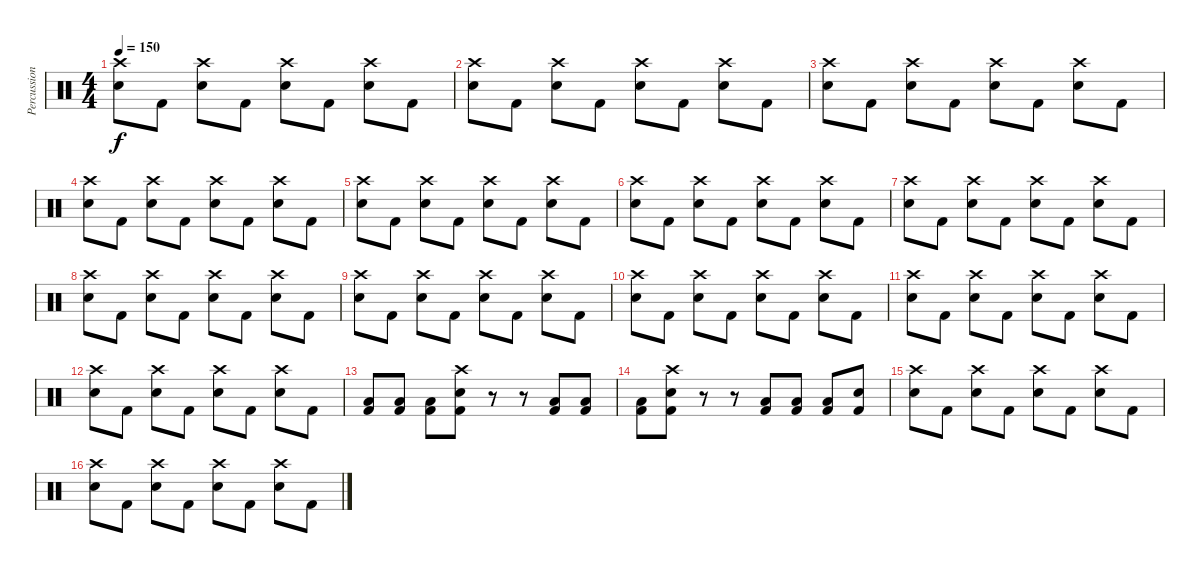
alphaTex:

\track ("Percussion" "Percussion") {instrument percussion}
\staff {score}
\articulation defaults
\ts (4 4)
\tempo 150
\clef neutral
\ks c
("Crash high (hit)" "Snare (hit) 2").8{dy f} "Kick (hit) 2".8 ("Crash high (hit)" "Snare (hit) 2").8 "Kick (hit) 2".8 ("Crash high (hit)" "Snare (hit) 2").8 "Kick (hit) 2".8 ("Crash high (hit)" "Snare (hit) 2").8 "Kick (hit) 2".8 |
("Crash high (hit)" "Snare (hit) 2").8 "Kick (hit) 2".8 ("Crash high (hit)" "Snare (hit) 2").8 "Kick (hit) 2".8 ("Crash high (hit)" "Snare (hit) 2").8 "Kick (hit) 2".8 ("Crash high (hit)" "Snare (hit) 2").8 "Kick (hit) 2".8 |
("Crash high (hit)" "Snare (hit) 2").8 "Kick (hit) 2".8 ("Crash high (hit)" "Snare (hit) 2").8 "Kick (hit) 2".8 ("Crash high (hit)" "Snare (hit) 2").8 "Kick (hit) 2".8 ("Crash high (hit)" "Snare (hit) 2").8 "Kick (hit) 2".8 |
("Crash high (hit)" "Snare (hit) 2").8 "Kick (hit) 2".8 ("Crash high (hit)" "Snare (hit) 2").8 "Kick (hit) 2".8 ("Crash high (hit)" "Snare (hit) 2").8 "Kick (hit) 2".8 ("Crash high (hit)" "Snare (hit) 2").8 "Kick (hit) 2".8 |
("Crash high (hit)" "Snare (hit) 2").8 "Kick (hit) 2".8 ("Crash high (hit)" "Snare (hit) 2").8 "Kick (hit) 2".8 ("Crash high (hit)" "Snare (hit) 2").8 "Kick (hit) 2".8 ("Crash high (hit)" "Snare (hit) 2").8 "Kick (hit) 2".8 |
("Crash high (hit)" "Snare (hit) 2").8 "Kick (hit) 2".8 ("Crash high (hit)" "Snare (hit) 2").8 "Kick (hit) 2".8 ("Crash high (hit)" "Snare (hit) 2").8 "Kick (hit) 2".8 ("Crash high (hit)" "Snare (hit) 2").8 "Kick (hit) 2".8 |
("Crash high (hit)" "Snare (hit) 2").8 "Kick (hit) 2".8 ("Crash high (hit)" "Snare (hit) 2").8 "Kick (hit) 2".8 ("Crash high (hit)" "Snare (hit) 2").8 "Kick (hit) 2".8 ("Crash high (hit)" "Snare (hit) 2").8 "Kick (hit) 2".8 |
("Crash high (hit)" "Snare (hit) 2").8 "Kick (hit) 2".8 ("Crash high (hit)" "Snare (hit) 2").8 "Kick (hit) 2".8 ("Crash high (hit)" "Snare (hit) 2").8 "Kick (hit) 2".8 ("Crash high (hit)" "Snare (hit) 2").8 "Kick (hit) 2".8 |
("Crash high (hit)" "Snare (hit) 2").8 "Kick (hit) 2".8 ("Crash high (hit)" "Snare (hit) 2").8 "Kick (hit) 2".8 ("Crash high (hit)" "Snare (hit) 2").8 "Kick (hit) 2".8 ("Crash high (hit)" "Snare (hit) 2").8 "Kick (hit) 2".8 |
("Crash high (hit)" "Snare (hit) 2").8 "Kick (hit) 2".8 ("Crash high (hit)" "Snare (hit) 2").8 "Kick (hit) 2".8 ("Crash high (hit)" "Snare (hit) 2").8 "Kick (hit) 2".8 ("Crash high (hit)" "Snare (hit) 2").8 "Kick (hit) 2".8 |
("Crash high (hit)" "Snare (hit) 2").8 "Kick (hit) 2".8 ("Crash high (hit)" "Snare (hit) 2").8 "Kick (hit) 2".8 ("Crash high (hit)" "Snare (hit) 2").8 "Kick (hit) 2".8 ("Crash high (hit)" "Snare (hit) 2").8 "Kick (hit) 2".8 |
("Crash high (hit)" "Snare (hit) 2").8 "Kick (hit) 2".8 ("Crash high (hit)" "Snare (hit) 2").8 "Kick (hit) 2".8 ("Crash high (hit)" "Snare (hit) 2").8 "Kick (hit) 2".8 ("Crash high (hit)" "Snare (hit) 2").8 "Kick (hit) 2".8 |
("Low Tom (hit)" "Kick (hit) 2").8 ("Low Tom (hit)" "Kick (hit) 2").8 ("Low Tom (hit)" "Kick (hit) 2").8 ("Crash high (hit)" "Electric Snare (hit)" "Kick (hit) 2").8 r.8 r.8 ("Low Tom (hit)" "Kick (hit) 2").8 ("Low Tom (hit)" "Kick (hit) 2").8 |
("Low Tom (hit)" "Kick (hit) 2").8 ("Kick (hit) 2" "Crash high (hit)" "Electric Snare (hit)").8 r.8 r.8 ("Low Tom (hit)" "Kick (hit) 2").8 ("Low Tom (hit)" "Kick (hit) 2").8 ("Low Tom (hit)" "Kick (hit) 2").8 ("Electric Snare (hit)" "Kick (hit) 2").8 |
("Crash high (hit)" "Snare (hit) 2").8 "Kick (hit) 2".8 ("Crash high (hit)" "Snare (hit) 2").8 "Kick (hit) 2".8 ("Crash high (hit)" "Snare (hit) 2").8 "Kick (hit) 2".8 ("Crash high (hit)" "Snare (hit) 2").8 "Kick (hit) 2".8 |
("Crash high (hit)" "Snare (hit) 2").8 "Kick (hit) 2".8 ("Crash high (hit)" "Snare (hit) 2").8 "Kick (hit) 2".8 ("Crash high (hit)" "Snare (hit) 2").8 "Kick (hit) 2".8 ("Crash high (hit)" "Snare (hit) 2").8 "Kick (hit) 2".8
